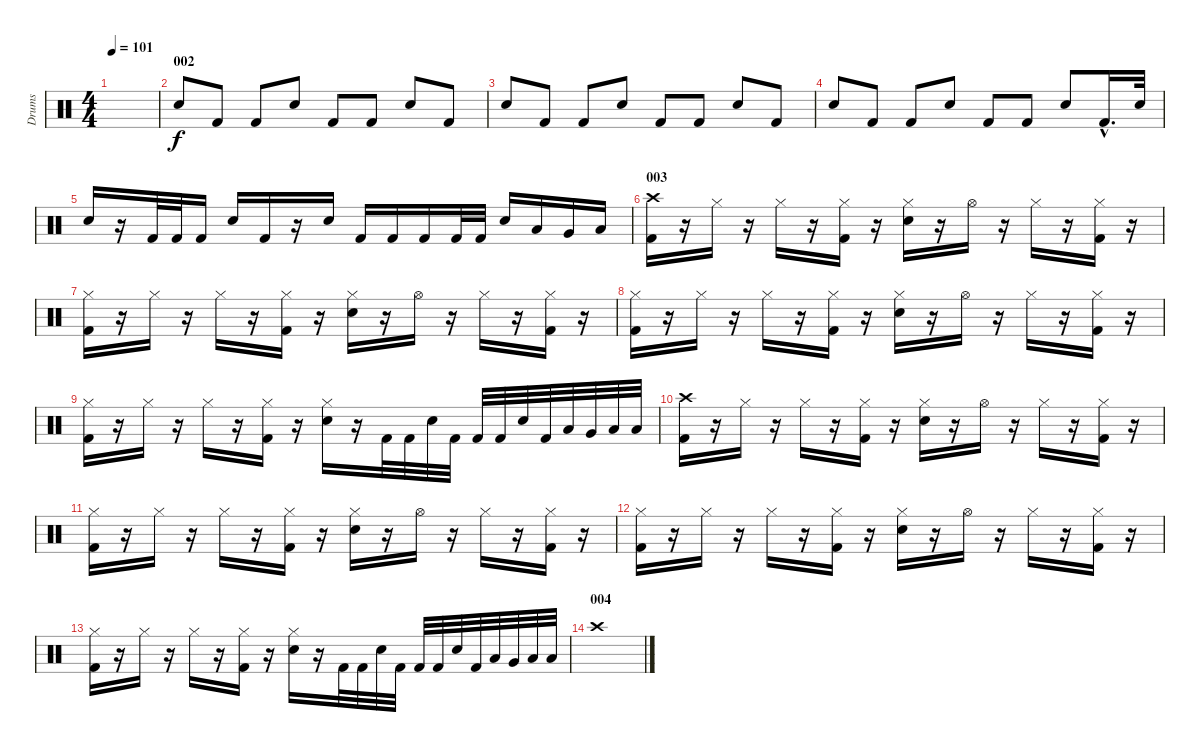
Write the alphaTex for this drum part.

\track ("Drums" "Drums") {instrument percussion}
\staff {score}
\articulation defaults
\ts (4 4)
\tempo 101
\clef neutral
\ks c
|
\section ("" "002")
"Electric Snare (hit)".8 "Kick (hit) 2".8 "Kick (hit) 2".8 "Electric Snare (hit)".8 "Kick (hit) 2".8 "Kick (hit) 2".8 "Electric Snare (hit)".8 "Kick (hit) 2".8 |
"Electric Snare (hit)".8 "Kick (hit) 2".8 "Kick (hit) 2".8 "Electric Snare (hit)".8 "Kick (hit) 2".8 "Kick (hit) 2".8 "Electric Snare (hit)".8 "Kick (hit) 2".8 |
"Electric Snare (hit)".8 "Kick (hit) 2".8 "Kick (hit) 2".8 "Electric Snare (hit)".8 "Kick (hit) 2".8 "Kick (hit) 2".8 "Electric Snare (hit)".8 "Kick (hit) 2"{hac}.16{d} "Electric Snare (hit)".32 |
"Electric Snare (hit)".16 r.16 "Kick (hit) 2".32 "Kick (hit) 2".32 "Kick (hit) 2".16 "Electric Snare (hit)".16 "Kick (hit) 2".16 r.16 "Electric Snare (hit)".16 "Kick (hit) 2".16 "Kick (hit) 2".16 "Kick (hit) 2".16 "Kick (hit) 2".32 "Kick (hit) 2".32 "Electric Snare (hit)".16 "Low Tom (hit)".16 "Very Low Tom (hit)".16 "Low Floor Tom (hit)".16 |
\section ("" "003")
("Kick (hit) 2" "Crash high (hit)").16 r.16 "Hi-Hat (closed)".16 r.16 "Hi-Hat (closed)".16 r.16 ("Kick (hit) 2" "Hi-Hat (closed)").16 r.16 ("Electric Snare (hit)" "Hi-Hat (closed)").16 r.16 "Hi-Hat (open)".16 r.16 "Hi-Hat (closed)".16 r.16 ("Kick (hit) 2" "Hi-Hat (closed)").16 r.16 |
("Kick (hit) 2" "Hi-Hat (closed)").16 r.16 "Hi-Hat (closed)".16 r.16 "Hi-Hat (closed)".16 r.16 ("Kick (hit) 2" "Hi-Hat (closed)").16 r.16 ("Electric Snare (hit)" "Hi-Hat (closed)").16 r.16 "Hi-Hat (open)".16 r.16 "Hi-Hat (closed)".16 r.16 ("Kick (hit) 2" "Hi-Hat (closed)").16 r.16 |
("Kick (hit) 2" "Hi-Hat (closed)").16 r.16 "Hi-Hat (closed)".16 r.16 "Hi-Hat (closed)".16 r.16 ("Kick (hit) 2" "Hi-Hat (closed)").16 r.16 ("Electric Snare (hit)" "Hi-Hat (closed)").16 r.16 "Hi-Hat (open)".16 r.16 "Hi-Hat (closed)".16 r.16 ("Kick (hit) 2" "Hi-Hat (closed)").16 r.16 |
("Kick (hit) 2" "Hi-Hat (closed)").16 r.16 "Hi-Hat (closed)".16 r.16 "Hi-Hat (closed)".16 r.16 ("Kick (hit) 2" "Hi-Hat (closed)").16 r.16 ("Electric Snare (hit)" "Hi-Hat (closed)").16 r.16 "Kick (hit) 2".32 "Kick (hit) 2".32 "Electric Snare (hit)".32 "Kick (hit) 2".32 "Kick (hit) 2".32 "Kick (hit) 2".32 "Electric Snare (hit)".32 "Kick (hit) 2".32 "Low Tom (hit)".32 "Very Low Tom (hit)".32 "Low Floor Tom (hit)".32 "Low Floor Tom (hit)".32 |
("Kick (hit) 2" "Crash high (hit)").16 r.16 "Hi-Hat (closed)".16 r.16 "Hi-Hat (closed)".16 r.16 ("Kick (hit) 2" "Hi-Hat (closed)").16 r.16 ("Electric Snare (hit)" "Hi-Hat (closed)").16 r.16 "Hi-Hat (open)".16 r.16 "Hi-Hat (closed)".16 r.16 ("Kick (hit) 2" "Hi-Hat (closed)").16 r.16 |
("Kick (hit) 2" "Hi-Hat (closed)").16 r.16 "Hi-Hat (closed)".16 r.16 "Hi-Hat (closed)".16 r.16 ("Kick (hit) 2" "Hi-Hat (closed)").16 r.16 ("Electric Snare (hit)" "Hi-Hat (closed)").16 r.16 "Hi-Hat (open)".16 r.16 "Hi-Hat (closed)".16 r.16 ("Kick (hit) 2" "Hi-Hat (closed)").16 r.16 |
("Kick (hit) 2" "Hi-Hat (closed)").16 r.16 "Hi-Hat (closed)".16 r.16 "Hi-Hat (closed)".16 r.16 ("Kick (hit) 2" "Hi-Hat (closed)").16 r.16 ("Electric Snare (hit)" "Hi-Hat (closed)").16 r.16 "Hi-Hat (open)".16 r.16 "Hi-Hat (closed)".16 r.16 ("Kick (hit) 2" "Hi-Hat (closed)").16 r.16 |
("Kick (hit) 2" "Hi-Hat (closed)").16 r.16 "Hi-Hat (closed)".16 r.16 "Hi-Hat (closed)".16 r.16 ("Kick (hit) 2" "Hi-Hat (closed)").16 r.16 ("Electric Snare (hit)" "Hi-Hat (closed)").16 r.16 "Kick (hit) 2".32 "Kick (hit) 2".32 "Electric Snare (hit)".32 "Kick (hit) 2".32 "Kick (hit) 2".32 "Kick (hit) 2".32 "Electric Snare (hit)".32 "Kick (hit) 2".32 "Low Tom (hit)".32 "Very Low Tom (hit)".32 "Low Floor Tom (hit)".32 "Low Floor Tom (hit)".32 |
\section ("" "004")
"Crash high (hit)".1
